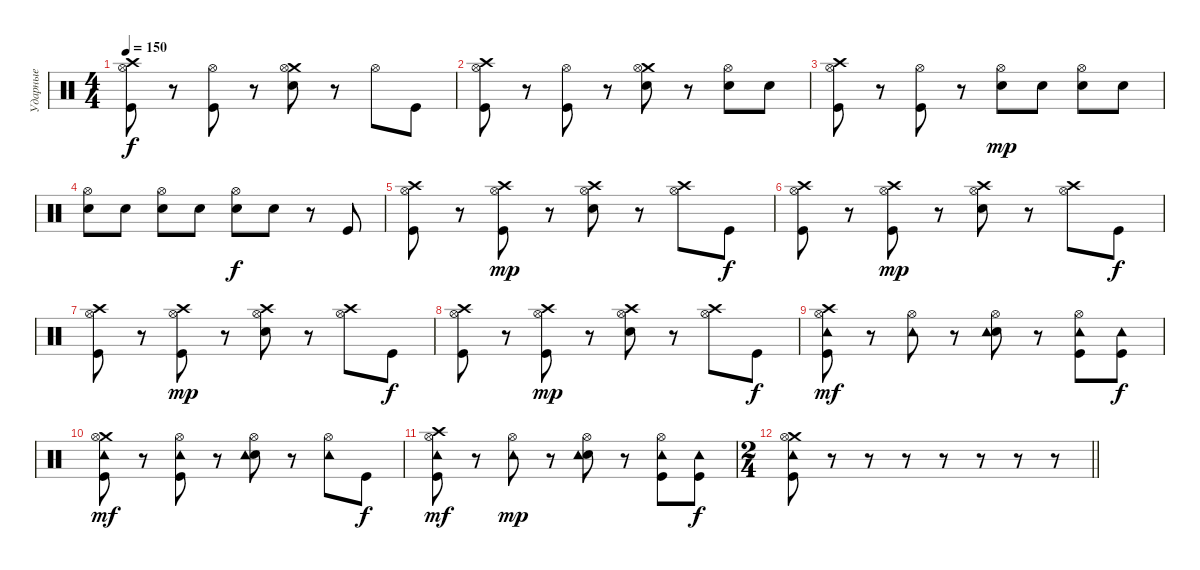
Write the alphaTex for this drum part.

\track ("Ударные" "Ударные") {instrument percussion}
\staff {score}
\articulation defaults
\ts (4 4)
\tempo 150
\clef neutral
\ks c
("Crash high (hit)" "Hi-Hat (open)" "Kick (hit)").8{dy f} r.8 ("Kick (hit)" "Hi-Hat (open)").8 r.8 ("Crash medium (hit)" "Electric Snare (hit)" "Hi-Hat (open)").8 r.8 "Hi-Hat (open)".8 "Kick (hit)".8 |
("Crash high (hit)" "Hi-Hat (open)" "Kick (hit)").8 r.8 ("Kick (hit)" "Hi-Hat (open)").8 r.8 ("Crash medium (hit)" "Electric Snare (hit)" "Hi-Hat (open)").8 r.8 ("Electric Snare (hit)" "Hi-Hat (open)").8 "Electric Snare (hit)".8 |
("Crash high (hit)" "Hi-Hat (open)" "Kick (hit)").8 r.8 ("Kick (hit)" "Hi-Hat (open)").8 r.8 ("Electric Snare (hit)" "Hi-Hat (open)").8{dy mp} "Electric Snare (hit)".8 ("Electric Snare (hit)" "Hi-Hat (open)").8 "Electric Snare (hit)".8 |
("Electric Snare (hit)" "Hi-Hat (open)").8 "Electric Snare (hit)".8 ("Electric Snare (hit)" "Hi-Hat (open)").8 "Electric Snare (hit)".8 ("Electric Snare (hit)" "Hi-Hat (open)").8{dy f} "Electric Snare (hit)".8 r.8 "Kick (hit)".8 |
("Crash high (hit)" "Hi-Hat (open)" "Kick (hit)").8 r.8 ("Crash high (hit)" "Kick (hit)" "Hi-Hat (open)").8{dy mp} r.8 ("Crash high (hit)" "Electric Snare (hit)" "Hi-Hat (open)").8 r.8 ("Crash high (hit)" "Hi-Hat (open)").8 "Kick (hit)".8{dy f} |
("Crash high (hit)" "Hi-Hat (open)" "Kick (hit)").8 r.8 ("Crash high (hit)" "Kick (hit)" "Hi-Hat (open)").8{dy mp} r.8 ("Crash high (hit)" "Electric Snare (hit)" "Hi-Hat (open)").8 r.8 ("Crash high (hit)" "Hi-Hat (open)").8 "Kick (hit)".8{dy f} |
("Crash high (hit)" "Hi-Hat (open)" "Kick (hit)").8 r.8 ("Crash high (hit)" "Kick (hit)" "Hi-Hat (open)").8{dy mp} r.8 ("Crash high (hit)" "Electric Snare (hit)" "Hi-Hat (open)").8 r.8 ("Crash high (hit)" "Hi-Hat (open)").8 "Kick (hit)".8{dy f} |
("Crash high (hit)" "Hi-Hat (open)" "Kick (hit)").8 r.8 ("Crash high (hit)" "Kick (hit)" "Hi-Hat (open)").8{dy mp} r.8 ("Crash high (hit)" "Electric Snare (hit)" "Hi-Hat (open)").8 r.8 ("Crash high (hit)" "Hi-Hat (open)").8 "Kick (hit)".8{dy f} |
("Crash high (hit)" "Kick (hit)" "Hi-Hat (open)" "Tambourine (hit)").8{dy mf} r.8 ("Hi-Hat (open)" "Tambourine (hit)").8 r.8 ("Electric Snare (hit)" "Hi-Hat (open)" "Tambourine (hit)").8 r.8 ("Kick (hit)" "Hi-Hat (open)" "Tambourine (hit)").8 ("Kick (hit)" "Tambourine (hit)").8{dy f} |
("Crash medium (hit)" "Kick (hit)" "Hi-Hat (open)" "Tambourine (hit)").8{dy mf} r.8 ("Kick (hit)" "Hi-Hat (open)" "Tambourine (hit)").8 r.8 ("Electric Snare (hit)" "Hi-Hat (open)" "Tambourine (hit)").8 r.8 ("Hi-Hat (open)" "Tambourine (hit)").8 "Kick (hit)".8{dy f} |
("Crash high (hit)" "Kick (hit)" "Hi-Hat (open)" "Tambourine (hit)").8{dy mf} r.8 ("Hi-Hat (open)" "Tambourine (hit)").8{dy mp} r.8 ("Electric Snare (hit)" "Hi-Hat (open)" "Tambourine (hit)").8 r.8 ("Kick (hit)" "Hi-Hat (open)" "Tambourine (hit)").8 ("Kick (hit)" "Tambourine (hit)").8{dy f} |
\ts (2 4)
\barLineRight lightlight
("Crash medium (hit)" "Kick (hit)" "Hi-Hat (open)" "Tambourine (hit)").8 r.8 r.8 r.8 r.8 r.8 r.8 r.8
